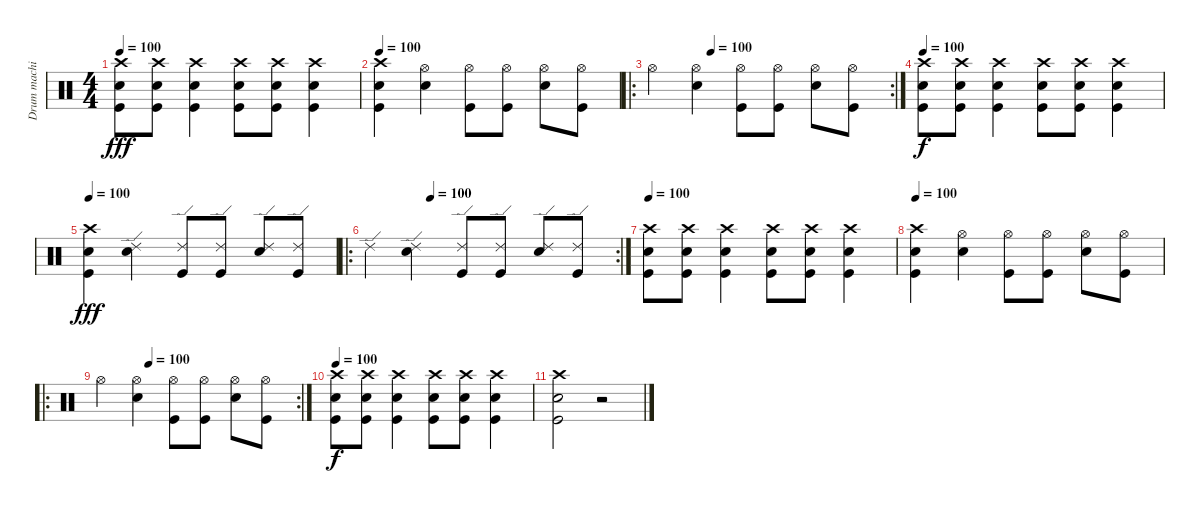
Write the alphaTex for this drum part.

\track ("Drum machine" "Drum machi") {instrument percussion}
\staff {score}
\articulation defaults
\ts (4 4)
\tempo 100
\clef neutral
\ks c
("Crash high (hit)" "Snare (hit) 2" "Kick (hit)").8{dy fff} ("Crash high (hit)" "Snare (hit) 2" "Kick (hit)").8 ("Crash high (hit)" "Snare (hit) 2" "Kick (hit)").4 ("Crash high (hit)" "Snare (hit) 2" "Kick (hit)").8 ("Crash high (hit)" "Snare (hit) 2" "Kick (hit)").8 ("Crash high (hit)" "Snare (hit) 2" "Kick (hit)").4 |
\tempo 100
("Crash high (hit)" "Kick (hit)" "Snare (hit) 2").4 ("Snare (hit) 2" "Hi-Hat (open)").4 ("Hi-Hat (open)" "Kick (hit)").8 ("Hi-Hat (open)" "Kick (hit)").8 ("Hi-Hat (open)" "Snare (hit) 2").8 ("Hi-Hat (open)" "Kick (hit)").8 |
\ro
\rc 2
\tempo (100 0.25)
"Hi-Hat (open)".4 ("Snare (hit) 2" "Hi-Hat (open)").4 ("Hi-Hat (open)" "Kick (hit)").8 ("Hi-Hat (open)" "Kick (hit)").8 ("Hi-Hat (open)" "Snare (hit) 2").8 ("Hi-Hat (open)" "Kick (hit)").8 |
\tempo 100
("Crash high (hit)" "Snare (hit) 2" "Kick (hit)").8{dy f} ("Crash high (hit)" "Snare (hit) 2" "Kick (hit)").8 ("Crash high (hit)" "Snare (hit) 2" "Kick (hit)").4 ("Crash high (hit)" "Snare (hit) 2" "Kick (hit)").8 ("Crash high (hit)" "Snare (hit) 2" "Kick (hit)").8 ("Crash high (hit)" "Snare (hit) 2" "Kick (hit)").4 |
\tempo 100
("Crash high (hit)" "Kick (hit)" "Snare (hit) 2").4{dy fff} ("Snare (hit) 2" "Ride (edge) 2").4 ("Ride (edge) 2" "Kick (hit)").8 ("Ride (edge) 2" "Kick (hit)").8 ("Ride (edge) 2" "Snare (hit) 2").8 ("Ride (edge) 2" "Kick (hit)").8 |
\ro
\rc 2
\tempo (100 0.25)
"Ride (edge) 2".4 ("Snare (hit) 2" "Ride (edge) 2").4 ("Ride (edge) 2" "Kick (hit)").8 ("Ride (edge) 2" "Kick (hit)").8 ("Ride (edge) 2" "Snare (hit) 2").8 ("Ride (edge) 2" "Kick (hit)").8 |
\tempo 100
("Crash high (hit)" "Snare (hit) 2" "Kick (hit)").8 ("Crash high (hit)" "Snare (hit) 2" "Kick (hit)").8 ("Crash high (hit)" "Snare (hit) 2" "Kick (hit)").4 ("Crash high (hit)" "Snare (hit) 2" "Kick (hit)").8 ("Crash high (hit)" "Snare (hit) 2" "Kick (hit)").8 ("Crash high (hit)" "Snare (hit) 2" "Kick (hit)").4 |
\tempo 100
("Crash high (hit)" "Kick (hit)" "Snare (hit) 2").4 ("Snare (hit) 2" "Hi-Hat (open)").4 ("Hi-Hat (open)" "Kick (hit)").8 ("Hi-Hat (open)" "Kick (hit)").8 ("Hi-Hat (open)" "Snare (hit) 2").8 ("Hi-Hat (open)" "Kick (hit)").8 |
\ro
\rc 2
\tempo (100 0.25)
"Hi-Hat (open)".4 ("Snare (hit) 2" "Hi-Hat (open)").4 ("Hi-Hat (open)" "Kick (hit)").8 ("Hi-Hat (open)" "Kick (hit)").8 ("Hi-Hat (open)" "Snare (hit) 2").8 ("Hi-Hat (open)" "Kick (hit)").8 |
\tempo 100
("Crash high (hit)" "Snare (hit) 2" "Kick (hit)").8{dy f} ("Crash high (hit)" "Snare (hit) 2" "Kick (hit)").8 ("Crash high (hit)" "Snare (hit) 2" "Kick (hit)").4 ("Crash high (hit)" "Snare (hit) 2" "Kick (hit)").8 ("Crash high (hit)" "Snare (hit) 2" "Kick (hit)").8 ("Crash high (hit)" "Snare (hit) 2" "Kick (hit)").4 |
("Crash high (hit)" "Snare (hit) 2" "Kick (hit)").2 r.2
